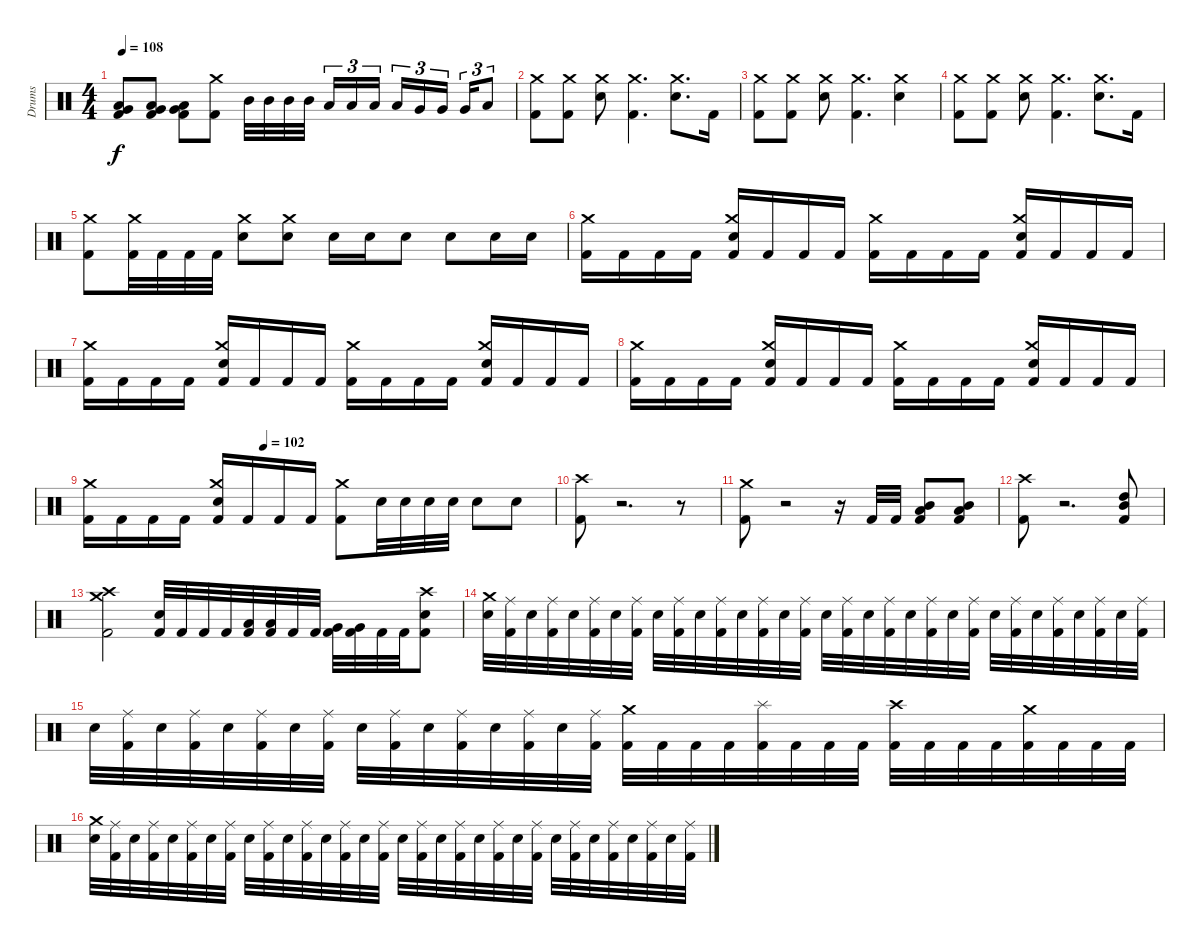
\track ("Drums" "Drums") {instrument percussion}
\staff {score}
\articulation defaults
\ts (4 4)
\tempo 108
\clef neutral
\ks c
("Very Low Tom (hit)" "Low Tom (hit)" "Kick (hit) 2").8{dy f} ("Very Low Tom (hit)" "Low Tom (hit)" "Kick (hit) 2").8 ("Very Low Tom (hit)" "Low Tom (hit)" "Kick (hit) 2").8 ("Crash medium (hit)" "Kick (hit) 2").8 "Mid Tom (hit)".32 "Mid Tom (hit)".32 "Mid Tom (hit)".32 "Mid Tom (hit)".32{beam splitsecondary} "Low Tom (hit)".16{tu (3 2)} "Low Tom (hit)".16{tu (3 2)} "Low Tom (hit)".16{tu (3 2)} "Low Tom (hit)".16{tu (3 2)} "Very Low Tom (hit)".16{tu (3 2)} "Very Low Tom (hit)".16{tu (3 2) beam splitsecondary} "Very Low Tom (hit)".16{tu (3 2)} "Low Floor Tom (hit)".8{tu (3 2)} |
("Crash medium (hit)" "Kick (hit) 2").8 ("Crash medium (hit)" "Kick (hit) 2").8 ("Crash medium (hit)" "Electric Snare (hit)").8 ("Crash medium (hit)" "Kick (hit) 2").4{d} ("Crash medium (hit)" "Electric Snare (hit)").8{d} "Kick (hit) 2".16 |
("Crash medium (hit)" "Kick (hit) 2").8 ("Crash medium (hit)" "Kick (hit) 2").8 ("Crash medium (hit)" "Electric Snare (hit)").8 ("Crash medium (hit)" "Kick (hit) 2").4{d} ("Crash medium (hit)" "Electric Snare (hit)").4 |
("Crash medium (hit)" "Kick (hit) 2").8 ("Crash medium (hit)" "Kick (hit) 2").8 ("Crash medium (hit)" "Electric Snare (hit)").8 ("Crash medium (hit)" "Kick (hit) 2").4{d} ("Crash medium (hit)" "Electric Snare (hit)").8{d} "Kick (hit) 2".16 |
("Crash medium (hit)" "Kick (hit) 2").8 ("Crash medium (hit)" "Kick (hit) 2").32 "Kick (hit) 2".32 "Kick (hit) 2".32 "Kick (hit) 2".32 ("Crash medium (hit)" "Electric Snare (hit)").8 ("Crash medium (hit)" "Electric Snare (hit)").8 "Electric Snare (hit)".16 "Electric Snare (hit)".16 "Electric Snare (hit)".8 "Electric Snare (hit)".8 "Electric Snare (hit)".16 "Electric Snare (hit)".16 |
("Crash medium (hit)" "Kick (hit) 2").16 "Kick (hit) 2".16 "Kick (hit) 2".16 "Kick (hit) 2".16 ("Crash medium (hit)" "Electric Snare (hit)" "Kick (hit) 2").16 "Kick (hit) 2".16 "Kick (hit) 2".16 "Kick (hit) 2".16 ("Crash medium (hit)" "Kick (hit) 2").16 "Kick (hit) 2".16 "Kick (hit) 2".16 "Kick (hit) 2".16 ("Crash medium (hit)" "Electric Snare (hit)" "Kick (hit) 2").16 "Kick (hit) 2".16 "Kick (hit) 2".16 "Kick (hit) 2".16 |
("Crash medium (hit)" "Kick (hit) 2").16 "Kick (hit) 2".16 "Kick (hit) 2".16 "Kick (hit) 2".16 ("Crash medium (hit)" "Electric Snare (hit)" "Kick (hit) 2").16 "Kick (hit) 2".16 "Kick (hit) 2".16 "Kick (hit) 2".16 ("Crash medium (hit)" "Kick (hit) 2").16 "Kick (hit) 2".16 "Kick (hit) 2".16 "Kick (hit) 2".16 ("Crash medium (hit)" "Electric Snare (hit)" "Kick (hit) 2").16 "Kick (hit) 2".16 "Kick (hit) 2".16 "Kick (hit) 2".16 |
("Crash medium (hit)" "Kick (hit) 2").16 "Kick (hit) 2".16 "Kick (hit) 2".16 "Kick (hit) 2".16 ("Crash medium (hit)" "Electric Snare (hit)" "Kick (hit) 2").16 "Kick (hit) 2".16 "Kick (hit) 2".16 "Kick (hit) 2".16 ("Crash medium (hit)" "Kick (hit) 2").16 "Kick (hit) 2".16 "Kick (hit) 2".16 "Kick (hit) 2".16 ("Crash medium (hit)" "Electric Snare (hit)" "Kick (hit) 2").16 "Kick (hit) 2".16 "Kick (hit) 2".16 "Kick (hit) 2".16 |
\tempo (102 0.375)
("Crash medium (hit)" "Kick (hit) 2").16 "Kick (hit) 2".16 "Kick (hit) 2".16 "Kick (hit) 2".16 ("Crash medium (hit)" "Electric Snare (hit)" "Kick (hit) 2").16 "Kick (hit) 2".16 "Kick (hit) 2".16 "Kick (hit) 2".16 ("Crash medium (hit)" "Kick (hit) 2").8 "Electric Snare (hit)".32 "Electric Snare (hit)".32 "Electric Snare (hit)".32 "Electric Snare (hit)".32 "Electric Snare (hit)".8 "Electric Snare (hit)".8 |
("Crash high (hit)" "Kick (hit) 2").8 r.2{d volume 0} r.8 |
("Crash medium (hit)" "Kick (hit) 2").8{volume 16} r.2{volume 0} r.16 "Kick (hit) 2".32{volume 16} "Kick (hit) 2".32 ("Low Tom (hit)" "Mid Tom (hit)" "Kick (hit) 2").8 ("Low Tom (hit)" "Mid Tom (hit)" "Kick (hit) 2").8 |
("Crash high (hit)" "Kick (hit) 2").8{volume 16} r.2{d volume 0} ("Mid Tom (hit)" "High Tom (hit)" "Kick (hit) 2").8{volume 16} |
("Crash medium (hit)" "Crash high (hit)" "Kick (hit) 2").2 ("Electric Snare (hit)" "Kick (hit) 2").32 "Kick (hit) 2".32 "Kick (hit) 2".32 "Kick (hit) 2".32 ("Low Tom (hit)" "Kick (hit) 2").32 ("Low Tom (hit)" "Kick (hit) 2").32 "Kick (hit) 2".32 "Kick (hit) 2".32 ("Very Low Tom (hit)" "Kick (hit) 2").32 ("Very Low Tom (hit)" "Kick (hit) 2").32 "Kick (hit) 2".32 "Kick (hit) 2".32 ("Crash high (hit)" "Electric Snare (hit)" "Kick (hit) 2").8 |
("Crash medium (hit)" "Electric Snare (hit)").32 ("Ride (middle)" "Kick (hit) 2").32 "Electric Snare (hit)".32 ("Ride (middle)" "Kick (hit) 2").32 "Electric Snare (hit)".32 ("Ride (middle)" "Kick (hit) 2").32 "Electric Snare (hit)".32 ("Ride (middle)" "Kick (hit) 2").32 "Electric Snare (hit)".32 ("Ride (middle)" "Kick (hit) 2").32 "Electric Snare (hit)".32 ("Ride (middle)" "Kick (hit) 2").32 "Electric Snare (hit)".32 ("Ride (middle)" "Kick (hit) 2").32 "Electric Snare (hit)".32 ("Ride (middle)" "Kick (hit) 2").32 "Electric Snare (hit)".32 ("Ride (middle)" "Kick (hit) 2").32 "Electric Snare (hit)".32 ("Ride (middle)" "Kick (hit) 2").32 "Electric Snare (hit)".32 ("Ride (middle)" "Kick (hit) 2").32 "Electric Snare (hit)".32 ("Ride (middle)" "Kick (hit) 2").32 "Electric Snare (hit)".32 ("Ride (middle)" "Kick (hit) 2").32 "Electric Snare (hit)".32 ("Ride (middle)" "Kick (hit) 2").32 "Electric Snare (hit)".32 ("Ride (middle)" "Kick (hit) 2").32 "Electric Snare (hit)".32 ("Ride (middle)" "Kick (hit) 2").32 |
"Electric Snare (hit)".32 ("Ride (middle)" "Kick (hit) 2").32 "Electric Snare (hit)".32 ("Ride (middle)" "Kick (hit) 2").32 "Electric Snare (hit)".32 ("Ride (middle)" "Kick (hit) 2").32 "Electric Snare (hit)".32 ("Ride (middle)" "Kick (hit) 2").32 "Electric Snare (hit)".32 ("Ride (middle)" "Kick (hit) 2").32 "Electric Snare (hit)".32 ("Ride (middle)" "Kick (hit) 2").32 "Electric Snare (hit)".32 ("Ride (middle)" "Kick (hit) 2").32 "Electric Snare (hit)".32 ("Ride (middle)" "Kick (hit) 2").32 ("Crash medium (hit)" "Kick (hit) 2").32 "Kick (hit) 2".32 "Kick (hit) 2".32 "Kick (hit) 2".32 ("Splash (hit)" "Kick (hit) 2").32 "Kick (hit) 2".32 "Kick (hit) 2".32 "Kick (hit) 2".32 ("Crash high (hit)" "Kick (hit) 2").32 "Kick (hit) 2".32 "Kick (hit) 2".32 "Kick (hit) 2".32 ("Crash medium (hit)" "Kick (hit) 2").32 "Kick (hit) 2".32 "Kick (hit) 2".32 "Kick (hit) 2".32 |
("Crash medium (hit)" "Electric Snare (hit)").32 ("Ride (middle)" "Kick (hit) 2").32 "Electric Snare (hit)".32 ("Ride (middle)" "Kick (hit) 2").32 "Electric Snare (hit)".32 ("Ride (middle)" "Kick (hit) 2").32 "Electric Snare (hit)".32 ("Ride (middle)" "Kick (hit) 2").32 "Electric Snare (hit)".32 ("Ride (middle)" "Kick (hit) 2").32 "Electric Snare (hit)".32 ("Ride (middle)" "Kick (hit) 2").32 "Electric Snare (hit)".32 ("Ride (middle)" "Kick (hit) 2").32 "Electric Snare (hit)".32 ("Ride (middle)" "Kick (hit) 2").32 "Electric Snare (hit)".32 ("Ride (middle)" "Kick (hit) 2").32 "Electric Snare (hit)".32 ("Ride (middle)" "Kick (hit) 2").32 "Electric Snare (hit)".32 ("Ride (middle)" "Kick (hit) 2").32 "Electric Snare (hit)".32 ("Ride (middle)" "Kick (hit) 2").32 "Electric Snare (hit)".32 ("Ride (middle)" "Kick (hit) 2").32 "Electric Snare (hit)".32 ("Ride (middle)" "Kick (hit) 2").32 "Electric Snare (hit)".32 ("Ride (middle)" "Kick (hit) 2").32 "Electric Snare (hit)".32 ("Ride (middle)" "Kick (hit) 2").32
